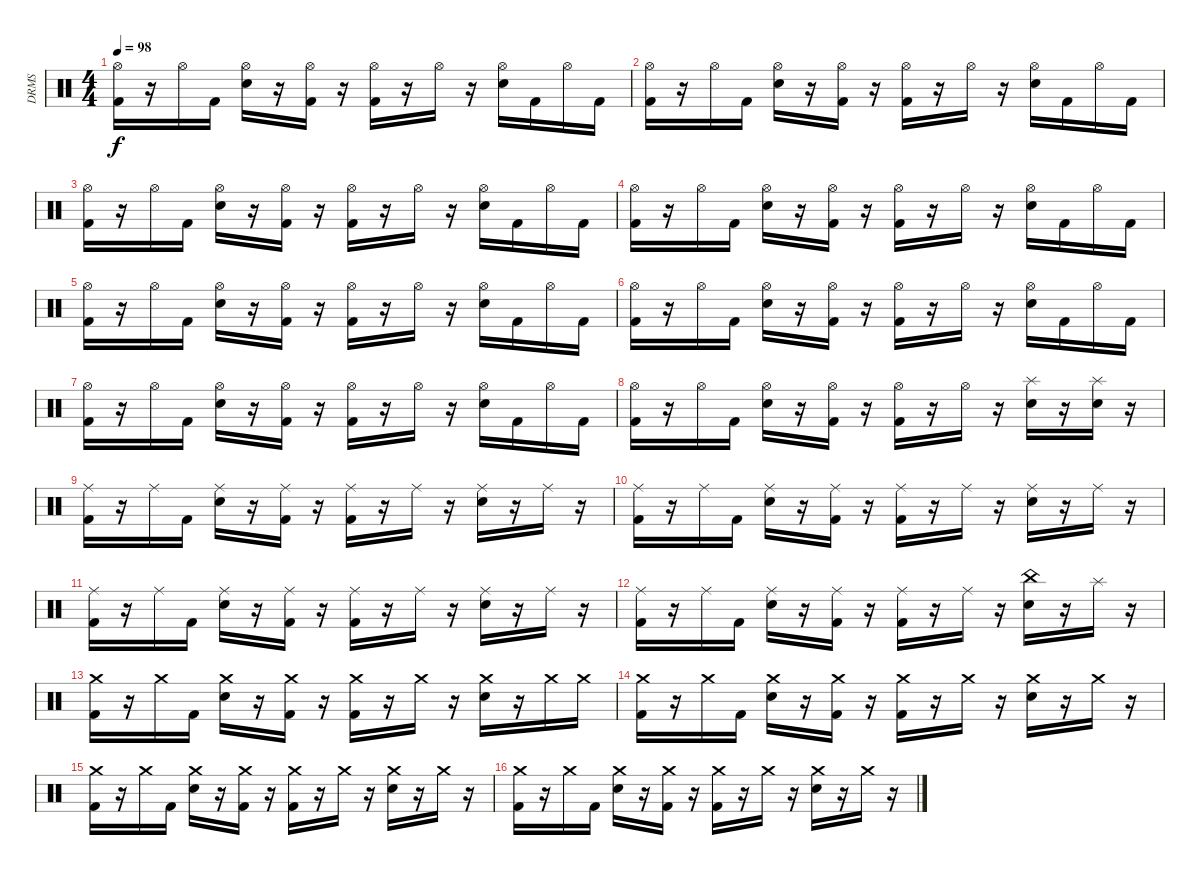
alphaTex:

\track ("DRMS" "DRMS") {instrument percussion}
\staff {score}
\articulation defaults
\ts (4 4)
\tempo 98
\clef neutral
\ks c
("Hi-Hat (open)" "Kick (hit) 2").16{dy f} r.16 "Hi-Hat (open)".16 "Kick (hit) 2".16 ("Hi-Hat (open)" "Snare (hit) 2").16 r.16 ("Hi-Hat (open)" "Kick (hit) 2").16 r.16 ("Hi-Hat (open)" "Kick (hit) 2").16 r.16 "Hi-Hat (open)".16 r.16 ("Hi-Hat (open)" "Snare (hit) 2").16 "Kick (hit) 2".16 "Hi-Hat (open)".16 "Kick (hit) 2".16 |
("Hi-Hat (open)" "Kick (hit) 2").16 r.16 "Hi-Hat (open)".16 "Kick (hit) 2".16 ("Hi-Hat (open)" "Snare (hit) 2").16 r.16 ("Hi-Hat (open)" "Kick (hit) 2").16 r.16 ("Hi-Hat (open)" "Kick (hit) 2").16 r.16 "Hi-Hat (open)".16 r.16 ("Hi-Hat (open)" "Snare (hit) 2").16 "Kick (hit) 2".16 "Hi-Hat (open)".16 "Kick (hit) 2".16 |
("Hi-Hat (open)" "Kick (hit) 2").16 r.16 "Hi-Hat (open)".16 "Kick (hit) 2".16 ("Hi-Hat (open)" "Snare (hit) 2").16 r.16 ("Hi-Hat (open)" "Kick (hit) 2").16 r.16 ("Hi-Hat (open)" "Kick (hit) 2").16 r.16 "Hi-Hat (open)".16 r.16 ("Hi-Hat (open)" "Snare (hit) 2").16 "Kick (hit) 2".16 "Hi-Hat (open)".16 "Kick (hit) 2".16 |
("Hi-Hat (open)" "Kick (hit) 2").16 r.16 "Hi-Hat (open)".16 "Kick (hit) 2".16 ("Hi-Hat (open)" "Snare (hit) 2").16 r.16 ("Hi-Hat (open)" "Kick (hit) 2").16 r.16 ("Hi-Hat (open)" "Kick (hit) 2").16 r.16 "Hi-Hat (open)".16 r.16 ("Hi-Hat (open)" "Snare (hit) 2").16 "Kick (hit) 2".16 "Hi-Hat (open)".16 "Kick (hit) 2".16 |
("Hi-Hat (open)" "Kick (hit) 2").16 r.16 "Hi-Hat (open)".16 "Kick (hit) 2".16 ("Hi-Hat (open)" "Snare (hit) 2").16 r.16 ("Hi-Hat (open)" "Kick (hit) 2").16 r.16 ("Hi-Hat (open)" "Kick (hit) 2").16 r.16 "Hi-Hat (open)".16 r.16 ("Hi-Hat (open)" "Snare (hit) 2").16 "Kick (hit) 2".16 "Hi-Hat (open)".16 "Kick (hit) 2".16 |
("Hi-Hat (open)" "Kick (hit) 2").16 r.16 "Hi-Hat (open)".16 "Kick (hit) 2".16 ("Hi-Hat (open)" "Snare (hit) 2").16 r.16 ("Hi-Hat (open)" "Kick (hit) 2").16 r.16 ("Hi-Hat (open)" "Kick (hit) 2").16 r.16 "Hi-Hat (open)".16 r.16 ("Hi-Hat (open)" "Snare (hit) 2").16 "Kick (hit) 2".16 "Hi-Hat (open)".16 "Kick (hit) 2".16 |
("Hi-Hat (open)" "Kick (hit) 2").16 r.16 "Hi-Hat (open)".16 "Kick (hit) 2".16 ("Hi-Hat (open)" "Snare (hit) 2").16 r.16 ("Hi-Hat (open)" "Kick (hit) 2").16 r.16 ("Hi-Hat (open)" "Kick (hit) 2").16 r.16 "Hi-Hat (open)".16 r.16 ("Hi-Hat (open)" "Snare (hit) 2").16 "Kick (hit) 2".16 "Hi-Hat (open)".16 "Kick (hit) 2".16 |
("Hi-Hat (open)" "Kick (hit) 2").16 r.16 "Hi-Hat (open)".16 "Kick (hit) 2".16 ("Hi-Hat (open)" "Snare (hit) 2").16 r.16 ("Hi-Hat (open)" "Kick (hit) 2").16 r.16 ("Hi-Hat (open)" "Kick (hit) 2").16 r.16 "Hi-Hat (open)".16 r.16 ("Splash (hit)" "Snare (hit) 2").16 r.16 ("Splash (hit)" "Snare (hit) 2").16 r.16 |
("Ride (middle)" "Kick (hit) 2").16 r.16 "Ride (middle)".16 "Kick (hit) 2".16 ("Ride (middle)" "Snare (hit) 2").16 r.16 ("Ride (middle)" "Kick (hit) 2").16 r.16 ("Ride (middle)" "Kick (hit) 2").16 r.16 "Ride (middle)".16 r.16 ("Ride (middle)" "Snare (hit) 2").16 r.16 "Ride (middle)".16 r.16 |
("Ride (middle)" "Kick (hit) 2").16 r.16 "Ride (middle)".16 "Kick (hit) 2".16 ("Ride (middle)" "Snare (hit) 2").16 r.16 ("Ride (middle)" "Kick (hit) 2").16 r.16 ("Ride (middle)" "Kick (hit) 2").16 r.16 "Ride (middle)".16 r.16 ("Ride (middle)" "Snare (hit) 2").16 r.16 "Ride (middle)".16 r.16 |
("Ride (middle)" "Kick (hit) 2").16 r.16 "Ride (middle)".16 "Kick (hit) 2".16 ("Ride (middle)" "Snare (hit) 2").16 r.16 ("Ride (middle)" "Kick (hit) 2").16 r.16 ("Ride (middle)" "Kick (hit) 2").16 r.16 "Ride (middle)".16 r.16 ("Ride (middle)" "Snare (hit) 2").16 r.16 "Ride (middle)".16 r.16 |
("Ride (middle)" "Kick (hit) 2").16 r.16 "Ride (middle)".16 "Kick (hit) 2".16 ("Ride (middle)" "Snare (hit) 2").16 r.16 ("Ride (middle)" "Kick (hit) 2").16 r.16 ("Ride (middle)" "Kick (hit) 2").16 r.16 "Ride (middle)".16 r.16 ("China (hit)" "Snare (hit) 2").16 r.16 "Splash (hit)".16 r.16 |
("Crash medium (hit)" "Kick (hit) 2").16 r.16 "Crash medium (hit)".16 "Kick (hit) 2".16 ("Crash medium (hit)" "Snare (hit) 2").16 r.16 ("Crash medium (hit)" "Kick (hit) 2").16 r.16 ("Crash medium (hit)" "Kick (hit) 2").16 r.16 "Crash medium (hit)".16 r.16 ("Crash medium (hit)" "Snare (hit) 2").16 r.16 "Crash medium (hit)".16 "Crash medium (hit)".16 |
("Crash medium (hit)" "Kick (hit) 2").16 r.16 "Crash medium (hit)".16 "Kick (hit) 2".16 ("Crash medium (hit)" "Snare (hit) 2").16 r.16 ("Crash medium (hit)" "Kick (hit) 2").16 r.16 ("Crash medium (hit)" "Kick (hit) 2").16 r.16 "Crash medium (hit)".16 r.16 ("Crash medium (hit)" "Snare (hit) 2").16 r.16 "Crash medium (hit)".16 r.16 |
("Crash medium (hit)" "Kick (hit) 2").16 r.16 "Crash medium (hit)".16 "Kick (hit) 2".16 ("Crash medium (hit)" "Snare (hit) 2").16 r.16 ("Crash medium (hit)" "Kick (hit) 2").16 r.16 ("Crash medium (hit)" "Kick (hit) 2").16 r.16 "Crash medium (hit)".16 r.16 ("Crash medium (hit)" "Snare (hit) 2").16 r.16 "Crash medium (hit)".16 r.16 |
("Crash medium (hit)" "Kick (hit) 2").16 r.16 "Crash medium (hit)".16 "Kick (hit) 2".16 ("Crash medium (hit)" "Snare (hit) 2").16 r.16 ("Crash medium (hit)" "Kick (hit) 2").16 r.16 ("Crash medium (hit)" "Kick (hit) 2").16 r.16 "Crash medium (hit)".16 r.16 ("Crash medium (hit)" "Snare (hit) 2").16 r.16 "Crash medium (hit)".16 r.16
